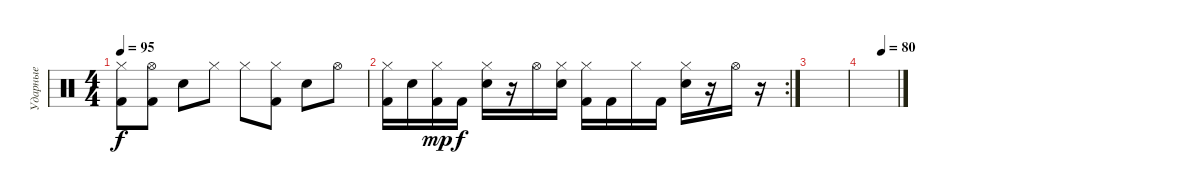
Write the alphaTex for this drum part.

\track ("Ударные" "Ударные") {instrument percussion}
\staff {score}
\articulation defaults
\ts (4 4)
\tempo 95
\clef neutral
\ks c
("Hi-Hat (closed)" "Kick (hit) 2").8{dy f} ("Hi-Hat (open)" "Kick (hit) 2").8 "Snare (hit) 2".8 "Hi-Hat (closed)".8 "Hi-Hat (closed)".8 ("Hi-Hat (closed)" "Kick (hit) 2").8 "Snare (hit) 2".8 "Hi-Hat (open)".8 |
\rc 2
("Hi-Hat (closed)" "Kick (hit) 2").16 "Snare (hit) 2".16 ("Hi-Hat (closed)" "Kick (hit) 2").16{dy mp} "Kick (hit) 2".16{dy f} ("Hi-Hat (closed)" "Snare (hit) 2").16 r.16 "Hi-Hat (open)".16 ("Hi-Hat (closed)" "Snare (hit) 2").16 ("Hi-Hat (closed)" "Kick (hit) 2").16 "Kick (hit) 2".16 "Hi-Hat (closed)".16 "Kick (hit) 2".16 ("Hi-Hat (closed)" "Snare (hit) 2").16 r.16 "Hi-Hat (open)".16 r.16 |
|
\tempo (80 0.5625)
